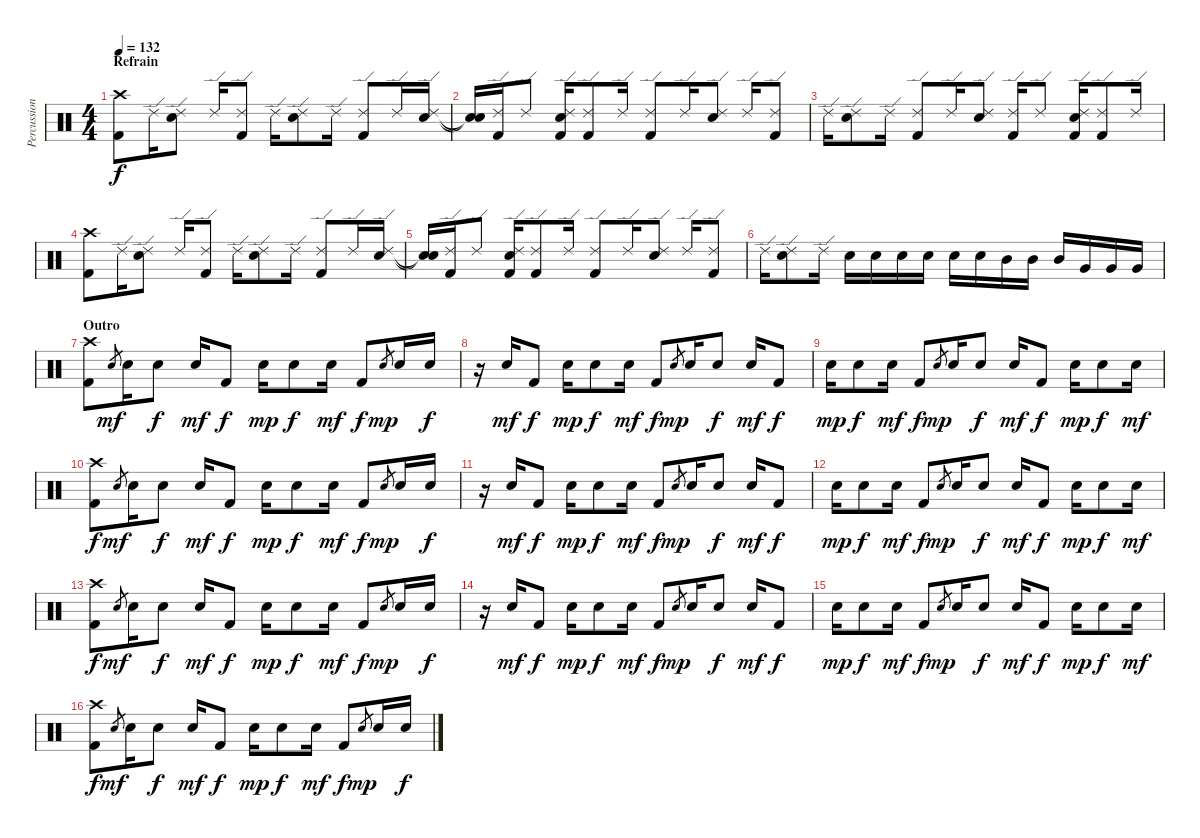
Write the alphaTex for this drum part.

\track ("Percussion" "Percussion") {instrument percussion}
\staff {score}
\articulation defaults
\ts (4 4)
\section ("" "Refrain")
\tempo 132
\clef neutral
\ks c
("Crash high (hit)" "Kick (hit) 2").8{dy f} "Ride (edge) 2".16 ("Ride (edge) 2" "Electric Snare (hit)").8 "Ride (edge) 2".16 ("Ride (edge) 2" "Kick (hit) 2").8 "Ride (edge) 2".16 ("Ride (edge) 2" "Electric Snare (hit)").8 "Ride (edge) 2".16 ("Ride (edge) 2" "Kick (hit) 2").8 "Ride (edge) 2".16 ("Ride (edge) 2" "Electric Snare (hit)").16 |
("Snare (hit)"{t} "Snare (hit)"{t}).16 ("Ride (edge) 2" "Kick (hit) 2").16 "Ride (edge) 2".8 ("Ride (edge) 2" "Electric Snare (hit)" "Kick (hit) 2").16 ("Ride (edge) 2" "Kick (hit) 2").8 "Ride (edge) 2".16 ("Ride (edge) 2" "Kick (hit) 2").8 "Ride (edge) 2".16 ("Ride (edge) 2" "Electric Snare (hit)").8 "Ride (edge) 2".16 ("Ride (edge) 2" "Kick (hit) 2").8 |
"Ride (edge) 2".16 ("Ride (edge) 2" "Electric Snare (hit)").8 "Ride (edge) 2".16 ("Ride (edge) 2" "Kick (hit) 2").8 "Ride (edge) 2".16 ("Ride (edge) 2" "Electric Snare (hit)").8 ("Ride (edge) 2" "Kick (hit) 2").16 "Ride (edge) 2".8 ("Ride (edge) 2" "Electric Snare (hit)" "Kick (hit) 2").16 ("Ride (edge) 2" "Kick (hit) 2").8 "Ride (edge) 2".16 |
("Crash high (hit)" "Kick (hit) 2").8 "Ride (edge) 2".16 ("Ride (edge) 2" "Electric Snare (hit)").8 "Ride (edge) 2".16 ("Ride (edge) 2" "Kick (hit) 2").8 "Ride (edge) 2".16 ("Ride (edge) 2" "Electric Snare (hit)").8 "Ride (edge) 2".16 ("Ride (edge) 2" "Kick (hit) 2").8 "Ride (edge) 2".16 ("Ride (edge) 2" "Electric Snare (hit)").16 |
("Snare (hit)"{t} "Snare (hit)"{t}).16 ("Ride (edge) 2" "Kick (hit) 2").16 "Ride (edge) 2".8 ("Ride (edge) 2" "Electric Snare (hit)" "Kick (hit) 2").16 ("Ride (edge) 2" "Kick (hit) 2").8 "Ride (edge) 2".16 ("Ride (edge) 2" "Kick (hit) 2").8 "Ride (edge) 2".16 ("Ride (edge) 2" "Electric Snare (hit)").8 "Ride (edge) 2".16 ("Ride (edge) 2" "Kick (hit) 2").8 |
"Ride (edge) 2".16 ("Ride (edge) 2" "Electric Snare (hit)").8 "Ride (edge) 2".16 "Electric Snare (hit)".16 "Electric Snare (hit)".16 "Electric Snare (hit)".16 "Snare (hit) 2".16 "Snare (hit) 2".16 "Snare (hit) 2".16 "Mid Tom (hit)".16 "Mid Tom (hit)".16 "Mid Tom (hit)".16 "Very Low Tom (hit)".16 "Very Low Tom (hit)".16 "Very Low Tom (hit)".16 |
\section ("" "Outro")
("Crash high (hit)" "Kick (hit) 2").8 "Snare (hit) 2".8{gr dy mf} "Snare (hit) 2".16 "Electric Snare (hit)".8{dy f} "Electric Snare (hit)".16{dy mf} "Kick (hit) 2".8{dy f} "Snare (hit) 2".16{dy mp} "Electric Snare (hit)".8{dy f} "Electric Snare (hit)".16{dy mf} "Kick (hit) 2".8{dy f} "Snare (hit) 2".8{gr dy mp} "Snare (hit) 2".16 "Electric Snare (hit)".16{dy f} |
r.16 "Electric Snare (hit)".16{dy mf} "Kick (hit) 2".8{dy f} "Snare (hit) 2".16{dy mp} "Electric Snare (hit)".8{dy f} "Electric Snare (hit)".16{dy mf} "Kick (hit) 2".8{dy f} "Snare (hit) 2".8{gr dy mp} "Snare (hit) 2".16 "Electric Snare (hit)".8{dy f} "Electric Snare (hit)".16{dy mf} "Kick (hit) 2".8{dy f} |
"Snare (hit) 2".16{dy mp} "Electric Snare (hit)".8{dy f} "Electric Snare (hit)".16{dy mf} "Kick (hit) 2".8{dy f} "Snare (hit) 2".8{gr dy mp} "Snare (hit) 2".16 "Electric Snare (hit)".8{dy f} "Electric Snare (hit)".16{dy mf} "Kick (hit) 2".8{dy f} "Snare (hit) 2".16{dy mp} "Electric Snare (hit)".8{dy f} "Electric Snare (hit)".16{dy mf} |
("Crash high (hit)" "Kick (hit) 2").8{dy f} "Snare (hit) 2".8{gr dy mf} "Snare (hit) 2".16 "Electric Snare (hit)".8{dy f} "Electric Snare (hit)".16{dy mf} "Kick (hit) 2".8{dy f} "Snare (hit) 2".16{dy mp} "Electric Snare (hit)".8{dy f} "Electric Snare (hit)".16{dy mf} "Kick (hit) 2".8{dy f} "Snare (hit) 2".8{gr dy mp} "Snare (hit) 2".16 "Electric Snare (hit)".16{dy f} |
r.16 "Electric Snare (hit)".16{dy mf} "Kick (hit) 2".8{dy f} "Snare (hit) 2".16{dy mp} "Electric Snare (hit)".8{dy f} "Electric Snare (hit)".16{dy mf} "Kick (hit) 2".8{dy f} "Snare (hit) 2".8{gr dy mp} "Snare (hit) 2".16 "Electric Snare (hit)".8{dy f} "Electric Snare (hit)".16{dy mf} "Kick (hit) 2".8{dy f} |
"Snare (hit) 2".16{dy mp} "Electric Snare (hit)".8{dy f} "Electric Snare (hit)".16{dy mf} "Kick (hit) 2".8{dy f} "Snare (hit) 2".8{gr dy mp} "Snare (hit) 2".16 "Electric Snare (hit)".8{dy f} "Electric Snare (hit)".16{dy mf} "Kick (hit) 2".8{dy f} "Snare (hit) 2".16{dy mp} "Electric Snare (hit)".8{dy f} "Electric Snare (hit)".16{dy mf} |
("Crash high (hit)" "Kick (hit) 2").8{dy f} "Snare (hit) 2".8{gr dy mf} "Snare (hit) 2".16 "Electric Snare (hit)".8{dy f} "Electric Snare (hit)".16{dy mf} "Kick (hit) 2".8{dy f} "Snare (hit) 2".16{dy mp} "Electric Snare (hit)".8{dy f} "Electric Snare (hit)".16{dy mf} "Kick (hit) 2".8{dy f} "Snare (hit) 2".8{gr dy mp} "Snare (hit) 2".16 "Electric Snare (hit)".16{dy f} |
r.16 "Electric Snare (hit)".16{dy mf} "Kick (hit) 2".8{dy f} "Snare (hit) 2".16{dy mp} "Electric Snare (hit)".8{dy f} "Electric Snare (hit)".16{dy mf} "Kick (hit) 2".8{dy f} "Snare (hit) 2".8{gr dy mp} "Snare (hit) 2".16 "Electric Snare (hit)".8{dy f} "Electric Snare (hit)".16{dy mf} "Kick (hit) 2".8{dy f} |
"Snare (hit) 2".16{dy mp} "Electric Snare (hit)".8{dy f} "Electric Snare (hit)".16{dy mf} "Kick (hit) 2".8{dy f} "Snare (hit) 2".8{gr dy mp} "Snare (hit) 2".16 "Electric Snare (hit)".8{dy f} "Electric Snare (hit)".16{dy mf} "Kick (hit) 2".8{dy f} "Snare (hit) 2".16{dy mp} "Electric Snare (hit)".8{dy f} "Electric Snare (hit)".16{dy mf} |
("Crash high (hit)" "Kick (hit) 2").8{dy f} "Snare (hit) 2".8{gr dy mf} "Snare (hit) 2".16 "Electric Snare (hit)".8{dy f} "Electric Snare (hit)".16{dy mf} "Kick (hit) 2".8{dy f} "Snare (hit) 2".16{dy mp} "Electric Snare (hit)".8{dy f} "Electric Snare (hit)".16{dy mf} "Kick (hit) 2".8{dy f} "Snare (hit) 2".8{gr dy mp} "Snare (hit) 2".16 "Electric Snare (hit)".16{dy f}
